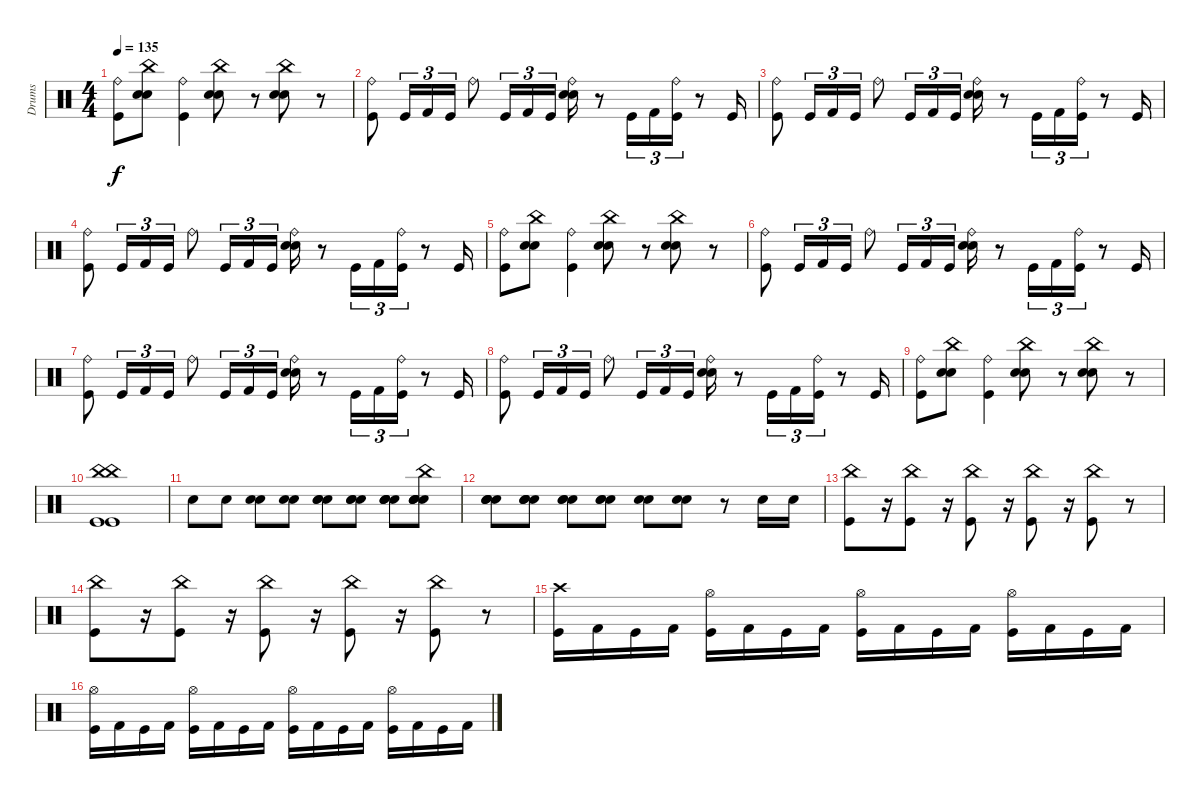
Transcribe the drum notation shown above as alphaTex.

\track ("Drums" "Drums") {instrument percussion}
\staff {score}
\articulation defaults
\ts (4 4)
\tempo 135
\clef neutral
\ks c
("Kick (hit)" "Ride (bell)").8{dy f} ("China (hit)" "Electric Snare (hit)" "Electric Snare (hit)").8 ("Kick (hit)" "Ride (bell)").4 ("China (hit)" "Electric Snare (hit)" "Electric Snare (hit)").8 r.8 ("China (hit)" "Electric Snare (hit)" "Electric Snare (hit)").8 r.8 |
("Kick (hit)" "Ride (bell)").8 "Kick (hit)".16{tu (3 2)} "Kick (hit) 2".16{tu (3 2)} "Kick (hit)".16{tu (3 2)} "Ride (bell)".8 "Kick (hit)".16{tu (3 2)} "Kick (hit) 2".16{tu (3 2)} "Kick (hit)".16{tu (3 2)} ("Ride (bell)" "Electric Snare (hit)" "Electric Snare (hit)").16 r.8 "Kick (hit)".16{tu (3 2)} "Kick (hit) 2".16{tu (3 2)} ("Kick (hit)" "Ride (bell)").16{tu (3 2)} r.8 "Kick (hit)".16 |
("Kick (hit)" "Ride (bell)").8 "Kick (hit)".16{tu (3 2)} "Kick (hit) 2".16{tu (3 2)} "Kick (hit)".16{tu (3 2)} "Ride (bell)".8 "Kick (hit)".16{tu (3 2)} "Kick (hit) 2".16{tu (3 2)} "Kick (hit)".16{tu (3 2)} ("Ride (bell)" "Electric Snare (hit)" "Electric Snare (hit)").16 r.8 "Kick (hit)".16{tu (3 2)} "Kick (hit) 2".16{tu (3 2)} ("Kick (hit)" "Ride (bell)").16{tu (3 2)} r.8 "Kick (hit)".16 |
("Kick (hit)" "Ride (bell)").8 "Kick (hit)".16{tu (3 2)} "Kick (hit) 2".16{tu (3 2)} "Kick (hit)".16{tu (3 2)} "Ride (bell)".8 "Kick (hit)".16{tu (3 2)} "Kick (hit) 2".16{tu (3 2)} "Kick (hit)".16{tu (3 2)} ("Ride (bell)" "Electric Snare (hit)" "Electric Snare (hit)").16 r.8 "Kick (hit)".16{tu (3 2)} "Kick (hit) 2".16{tu (3 2)} ("Kick (hit)" "Ride (bell)").16{tu (3 2)} r.8 "Kick (hit)".16 |
("Kick (hit)" "Ride (bell)").8 ("China (hit)" "Electric Snare (hit)" "Electric Snare (hit)").8 ("Kick (hit)" "Ride (bell)").4 ("China (hit)" "Electric Snare (hit)" "Electric Snare (hit)").8 r.8 ("China (hit)" "Electric Snare (hit)" "Electric Snare (hit)").8 r.8 |
("Kick (hit)" "Ride (bell)").8 "Kick (hit)".16{tu (3 2)} "Kick (hit) 2".16{tu (3 2)} "Kick (hit)".16{tu (3 2)} "Ride (bell)".8 "Kick (hit)".16{tu (3 2)} "Kick (hit) 2".16{tu (3 2)} "Kick (hit)".16{tu (3 2)} ("Ride (bell)" "Electric Snare (hit)" "Electric Snare (hit)").16 r.8 "Kick (hit)".16{tu (3 2)} "Kick (hit) 2".16{tu (3 2)} ("Kick (hit)" "Ride (bell)").16{tu (3 2)} r.8 "Kick (hit)".16 |
("Kick (hit)" "Ride (bell)").8 "Kick (hit)".16{tu (3 2)} "Kick (hit) 2".16{tu (3 2)} "Kick (hit)".16{tu (3 2)} "Ride (bell)".8 "Kick (hit)".16{tu (3 2)} "Kick (hit) 2".16{tu (3 2)} "Kick (hit)".16{tu (3 2)} ("Ride (bell)" "Electric Snare (hit)" "Electric Snare (hit)").16 r.8 "Kick (hit)".16{tu (3 2)} "Kick (hit) 2".16{tu (3 2)} ("Kick (hit)" "Ride (bell)").16{tu (3 2)} r.8 "Kick (hit)".16 |
("Kick (hit)" "Ride (bell)").8 "Kick (hit)".16{tu (3 2)} "Kick (hit) 2".16{tu (3 2)} "Kick (hit)".16{tu (3 2)} "Ride (bell)".8 "Kick (hit)".16{tu (3 2)} "Kick (hit) 2".16{tu (3 2)} "Kick (hit)".16{tu (3 2)} ("Ride (bell)" "Electric Snare (hit)" "Electric Snare (hit)").16 r.8 "Kick (hit)".16{tu (3 2)} "Kick (hit) 2".16{tu (3 2)} ("Kick (hit)" "Ride (bell)").16{tu (3 2)} r.8 "Kick (hit)".16 |
("Kick (hit)" "Ride (bell)").8 ("China (hit)" "Electric Snare (hit)" "Electric Snare (hit)").8 ("Kick (hit)" "Ride (bell)").4 ("China (hit)" "Electric Snare (hit)" "Electric Snare (hit)").8 r.8 ("China (hit)" "Electric Snare (hit)" "Electric Snare (hit)").8 r.8 |
("Kick (hit)" "Kick (hit)" "China (hit)" "China (hit)").1 |
"Electric Snare (hit)".8 "Electric Snare (hit)".8 ("Electric Snare (hit)" "Electric Snare (hit)").8 ("Electric Snare (hit)" "Electric Snare (hit)").8 ("Electric Snare (hit)" "Electric Snare (hit)" "Electric Snare (hit)").8 ("Electric Snare (hit)" "Electric Snare (hit)" "Electric Snare (hit)").8 ("Electric Snare (hit)" "Electric Snare (hit)" "Electric Snare (hit)" "Electric Snare (hit)").8 ("Electric Snare (hit)" "Electric Snare (hit)" "Electric Snare (hit)" "Electric Snare (hit)" "China (hit)").8 |
("Electric Snare (hit)" "Electric Snare (hit)" "Electric Snare (hit)" "Electric Snare (hit)").8 ("Electric Snare (hit)" "Electric Snare (hit)" "Electric Snare (hit)" "Electric Snare (hit)").8 ("Electric Snare (hit)" "Electric Snare (hit)" "Electric Snare (hit)").8 ("Electric Snare (hit)" "Electric Snare (hit)" "Electric Snare (hit)").8 ("Electric Snare (hit)" "Electric Snare (hit)").8 ("Electric Snare (hit)" "Electric Snare (hit)").8 r.8 "Electric Snare (hit)".16 "Electric Snare (hit)".16 |
("Kick (hit)" "China (hit)").8 r.16 ("Kick (hit)" "China (hit)").8 r.16 ("Kick (hit)" "China (hit)").8 r.16 ("Kick (hit)" "China (hit)").8 r.16 ("Kick (hit)" "China (hit)").8 r.8 |
("Kick (hit)" "China (hit)").8 r.16 ("Kick (hit)" "China (hit)").8 r.16 ("Kick (hit)" "China (hit)").8 r.16 ("Kick (hit)" "China (hit)").8 r.16 ("Kick (hit)" "China (hit)").8 r.8 |
("Kick (hit)" "Crash high (hit)").16 "Kick (hit) 2".16 "Kick (hit)".16 "Kick (hit) 2".16 ("Kick (hit)" "Hi-Hat (open)").16 "Kick (hit) 2".16 "Kick (hit)".16 "Kick (hit) 2".16 ("Kick (hit)" "Hi-Hat (open)").16 "Kick (hit) 2".16 "Kick (hit)".16 "Kick (hit) 2".16 ("Kick (hit)" "Hi-Hat (open)").16 "Kick (hit) 2".16 "Kick (hit)".16 "Kick (hit) 2".16 |
("Kick (hit)" "Hi-Hat (open)").16 "Kick (hit) 2".16 "Kick (hit)".16 "Kick (hit) 2".16 ("Kick (hit)" "Hi-Hat (open)").16 "Kick (hit) 2".16 "Kick (hit)".16 "Kick (hit) 2".16 ("Kick (hit)" "Hi-Hat (open)").16 "Kick (hit) 2".16 "Kick (hit)".16 "Kick (hit) 2".16 ("Kick (hit)" "Hi-Hat (open)").16 "Kick (hit) 2".16 "Kick (hit)".16 "Kick (hit) 2".16
